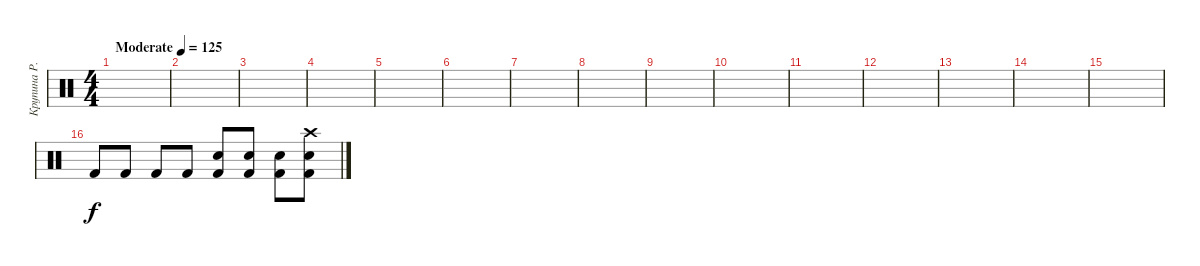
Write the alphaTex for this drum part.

\track ("Крупина Р.В." "Крупина Р.") {instrument percussion}
\staff {score}
\articulation defaults
\ts (4 4)
\tempo (125 "Moderate")
\clef neutral
\ks c
|
|
|
|
|
|
|
|
|
|
|
|
|
|
|
"Kick (hit) 2".8 "Kick (hit) 2".8 "Kick (hit) 2".8 "Kick (hit) 2".8 ("Kick (hit) 2" "Snare (hit) 2").8 ("Kick (hit) 2" "Snare (hit) 2").8 ("Kick (hit) 2" "Snare (hit) 2").8 ("Crash high (hit)" "Kick (hit) 2" "Snare (hit) 2").8
